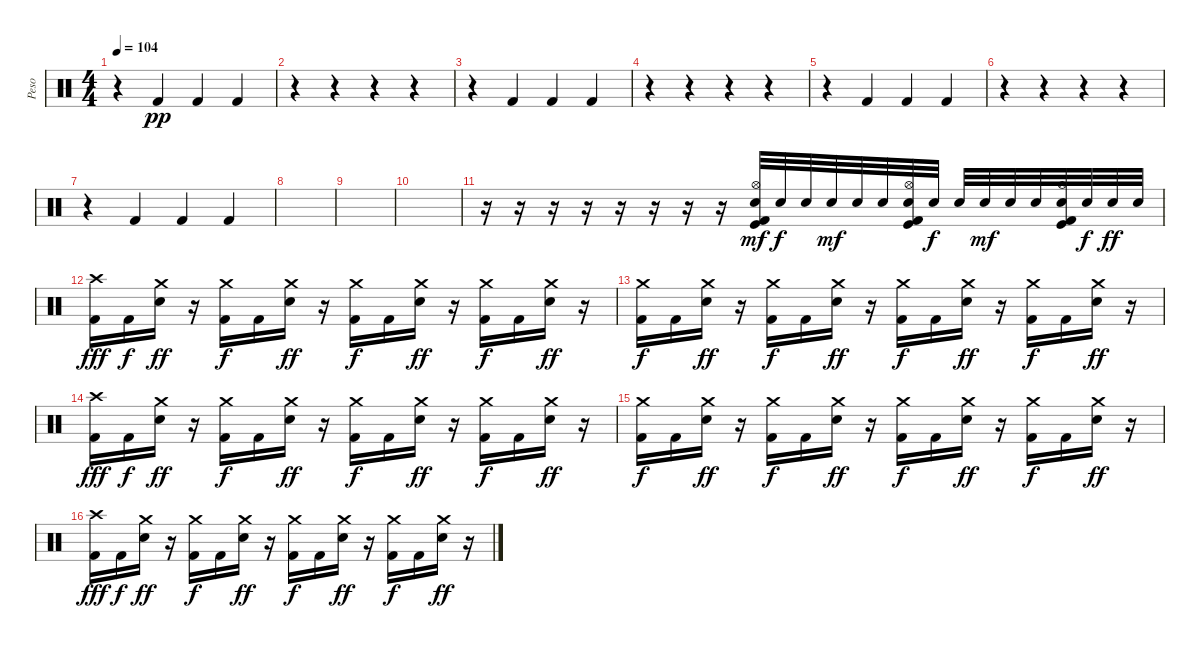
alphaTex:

\track ("Peso" "Peso") {instrument percussion}
\staff {score}
\articulation defaults
\ts (4 4)
\tempo 104
\clef neutral
\ks c
r.4{dy pp} "Kick (hit) 2".4 "Kick (hit) 2".4 "Kick (hit) 2".4 |
r.4 r.4 r.4 r.4 |
r.4 "Kick (hit) 2".4 "Kick (hit) 2".4 "Kick (hit) 2".4 |
r.4 r.4 r.4 r.4 |
r.4 "Kick (hit) 2".4 "Kick (hit) 2".4 "Kick (hit) 2".4 |
r.4 r.4 r.4 r.4 |
r.4 "Kick (hit) 2".4 "Kick (hit) 2".4 "Kick (hit) 2".4 |
|
|
|
r.16 r.16 r.16 r.16 r.16 r.16 r.16 r.16 ("Hi-Hat (open)" "Electric Snare (hit)" "Kick (hit)" "Kick (hit) 2").32{dy mf} "Electric Snare (hit)".32{dy f} "Electric Snare (hit)".32 "Electric Snare (hit)".32{dy mf} "Electric Snare (hit)".32 "Electric Snare (hit)".32 ("Hi-Hat (open)" "Electric Snare (hit)" "Kick (hit)" "Kick (hit) 2").32 "Electric Snare (hit)".32{dy f} "Electric Snare (hit)".32 "Electric Snare (hit)".32{dy mf} "Electric Snare (hit)".32 "Electric Snare (hit)".32 ("Hi-Hat (open)" "Electric Snare (hit)" "Kick (hit)" "Kick (hit) 2").32 "Electric Snare (hit)".32{dy f} "Electric Snare (hit)".32{dy ff} "Electric Snare (hit)".32 |
("Crash high (hit)" "Kick (hit) 2").16{dy fff} "Kick (hit) 2".16{dy f} ("Crash medium (hit)" "Electric Snare (hit)").16{dy ff} r.16 ("Crash medium (hit)" "Kick (hit) 2").16{dy f} "Kick (hit) 2".16 ("Crash medium (hit)" "Electric Snare (hit)").16{dy ff} r.16 ("Crash medium (hit)" "Kick (hit) 2").16{dy f} "Kick (hit) 2".16 ("Crash medium (hit)" "Electric Snare (hit)").16{dy ff} r.16 ("Crash medium (hit)" "Kick (hit) 2").16{dy f} "Kick (hit) 2".16 ("Crash medium (hit)" "Electric Snare (hit)").16{dy ff} r.16 |
("Crash medium (hit)" "Kick (hit) 2").16{dy f} "Kick (hit) 2".16 ("Crash medium (hit)" "Electric Snare (hit)").16{dy ff} r.16 ("Crash medium (hit)" "Kick (hit) 2").16{dy f} "Kick (hit) 2".16 ("Crash medium (hit)" "Electric Snare (hit)").16{dy ff} r.16 ("Crash medium (hit)" "Kick (hit) 2").16{dy f} "Kick (hit) 2".16 ("Crash medium (hit)" "Electric Snare (hit)").16{dy ff} r.16 ("Crash medium (hit)" "Kick (hit) 2").16{dy f} "Kick (hit) 2".16 ("Crash medium (hit)" "Electric Snare (hit)").16{dy ff} r.16 |
("Crash high (hit)" "Kick (hit) 2").16{dy fff} "Kick (hit) 2".16{dy f} ("Crash medium (hit)" "Electric Snare (hit)").16{dy ff} r.16 ("Crash medium (hit)" "Kick (hit) 2").16{dy f} "Kick (hit) 2".16 ("Crash medium (hit)" "Electric Snare (hit)").16{dy ff} r.16 ("Crash medium (hit)" "Kick (hit) 2").16{dy f} "Kick (hit) 2".16 ("Crash medium (hit)" "Electric Snare (hit)").16{dy ff} r.16 ("Crash medium (hit)" "Kick (hit) 2").16{dy f} "Kick (hit) 2".16 ("Crash medium (hit)" "Electric Snare (hit)").16{dy ff} r.16 |
("Crash medium (hit)" "Kick (hit) 2").16{dy f} "Kick (hit) 2".16 ("Crash medium (hit)" "Electric Snare (hit)").16{dy ff} r.16 ("Crash medium (hit)" "Kick (hit) 2").16{dy f} "Kick (hit) 2".16 ("Crash medium (hit)" "Electric Snare (hit)").16{dy ff} r.16 ("Crash medium (hit)" "Kick (hit) 2").16{dy f} "Kick (hit) 2".16 ("Crash medium (hit)" "Electric Snare (hit)").16{dy ff} r.16 ("Crash medium (hit)" "Kick (hit) 2").16{dy f} "Kick (hit) 2".16 ("Crash medium (hit)" "Electric Snare (hit)").16{dy ff} r.16 |
("Crash high (hit)" "Kick (hit) 2").16{dy fff} "Kick (hit) 2".16{dy f} ("Crash medium (hit)" "Electric Snare (hit)").16{dy ff} r.16 ("Crash medium (hit)" "Kick (hit) 2").16{dy f} "Kick (hit) 2".16 ("Crash medium (hit)" "Electric Snare (hit)").16{dy ff} r.16 ("Crash medium (hit)" "Kick (hit) 2").16{dy f} "Kick (hit) 2".16 ("Crash medium (hit)" "Electric Snare (hit)").16{dy ff} r.16 ("Crash medium (hit)" "Kick (hit) 2").16{dy f} "Kick (hit) 2".16 ("Crash medium (hit)" "Electric Snare (hit)").16{dy ff} r.16
